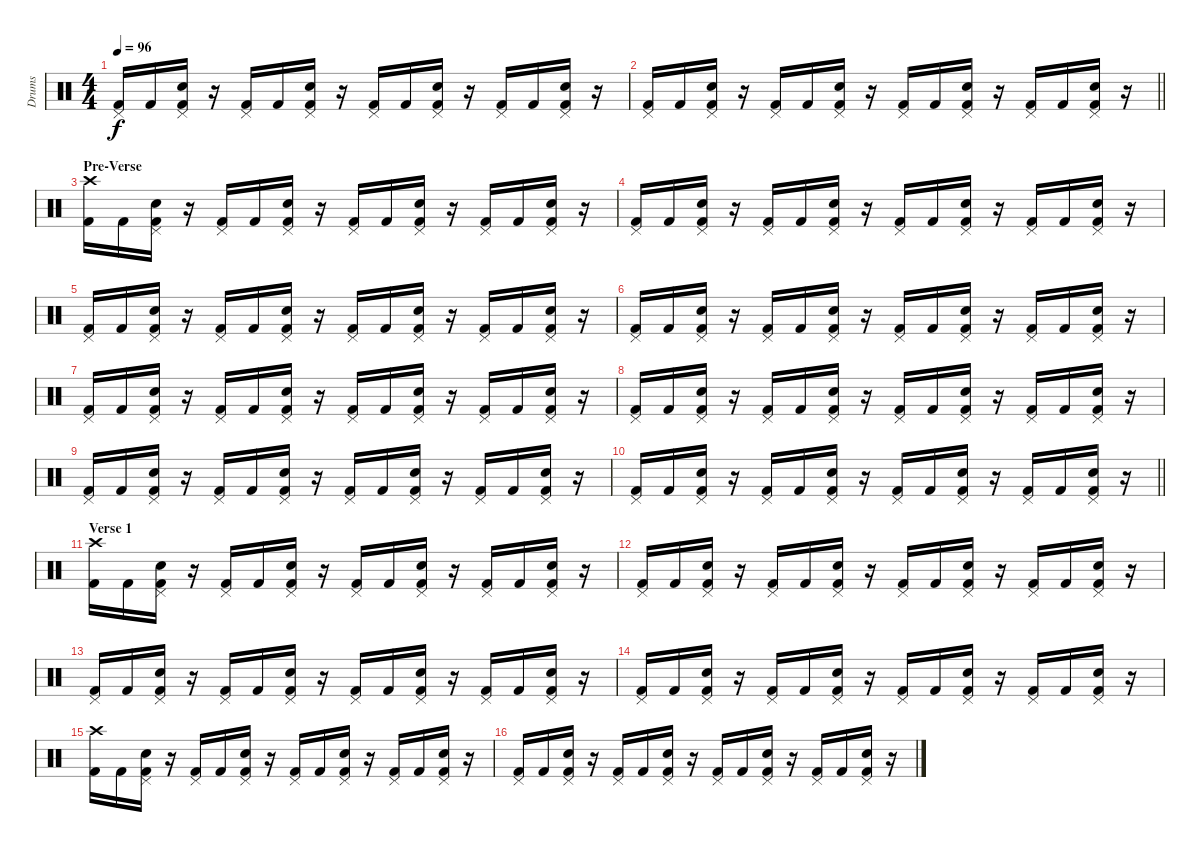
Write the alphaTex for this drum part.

\track ("Drums" "Drums") {instrument percussion}
\staff {score}
\articulation defaults
\ts (4 4)
\tempo 96
\clef neutral
\ks c
("Pedal Hi-Hat (hit)" "Kick (hit) 2").16{dy f} "Kick (hit) 2".16 ("Pedal Hi-Hat (hit)" "Snare (hit) 2" "Kick (hit) 2").16 r.16 ("Pedal Hi-Hat (hit)" "Kick (hit) 2").16 "Kick (hit) 2".16 ("Pedal Hi-Hat (hit)" "Snare (hit) 2" "Kick (hit) 2").16 r.16 ("Pedal Hi-Hat (hit)" "Kick (hit) 2").16 "Kick (hit) 2".16 ("Pedal Hi-Hat (hit)" "Snare (hit) 2" "Kick (hit) 2").16 r.16 ("Pedal Hi-Hat (hit)" "Kick (hit) 2").16 "Kick (hit) 2".16 ("Pedal Hi-Hat (hit)" "Snare (hit) 2" "Kick (hit) 2").16 r.16 |
\barLineRight lightlight
("Pedal Hi-Hat (hit)" "Kick (hit) 2").16 "Kick (hit) 2".16 ("Pedal Hi-Hat (hit)" "Snare (hit) 2" "Kick (hit) 2").16 r.16 ("Pedal Hi-Hat (hit)" "Kick (hit) 2").16 "Kick (hit) 2".16 ("Pedal Hi-Hat (hit)" "Snare (hit) 2" "Kick (hit) 2").16 r.16 ("Pedal Hi-Hat (hit)" "Kick (hit) 2").16 "Kick (hit) 2".16 ("Pedal Hi-Hat (hit)" "Snare (hit) 2" "Kick (hit) 2").16 r.16 ("Pedal Hi-Hat (hit)" "Kick (hit) 2").16 "Kick (hit) 2".16 ("Pedal Hi-Hat (hit)" "Snare (hit) 2" "Kick (hit) 2").16 r.16 |
\section ("" "Pre-Verse")
("Crash high (hit)" "Kick (hit) 2").16 "Kick (hit) 2".16 ("Pedal Hi-Hat (hit)" "Snare (hit) 2" "Kick (hit) 2").16 r.16 ("Pedal Hi-Hat (hit)" "Kick (hit) 2").16 "Kick (hit) 2".16 ("Pedal Hi-Hat (hit)" "Snare (hit) 2" "Kick (hit) 2").16 r.16 ("Pedal Hi-Hat (hit)" "Kick (hit) 2").16 "Kick (hit) 2".16 ("Pedal Hi-Hat (hit)" "Snare (hit) 2" "Kick (hit) 2").16 r.16 ("Pedal Hi-Hat (hit)" "Kick (hit) 2").16 "Kick (hit) 2".16 ("Pedal Hi-Hat (hit)" "Snare (hit) 2" "Kick (hit) 2").16 r.16 |
("Pedal Hi-Hat (hit)" "Kick (hit) 2").16 "Kick (hit) 2".16 ("Pedal Hi-Hat (hit)" "Snare (hit) 2" "Kick (hit) 2").16 r.16 ("Pedal Hi-Hat (hit)" "Kick (hit) 2").16 "Kick (hit) 2".16 ("Pedal Hi-Hat (hit)" "Snare (hit) 2" "Kick (hit) 2").16 r.16 ("Pedal Hi-Hat (hit)" "Kick (hit) 2").16 "Kick (hit) 2".16 ("Pedal Hi-Hat (hit)" "Snare (hit) 2" "Kick (hit) 2").16 r.16 ("Pedal Hi-Hat (hit)" "Kick (hit) 2").16 "Kick (hit) 2".16 ("Pedal Hi-Hat (hit)" "Snare (hit) 2" "Kick (hit) 2").16 r.16 |
("Pedal Hi-Hat (hit)" "Kick (hit) 2").16 "Kick (hit) 2".16 ("Pedal Hi-Hat (hit)" "Snare (hit) 2" "Kick (hit) 2").16 r.16 ("Pedal Hi-Hat (hit)" "Kick (hit) 2").16 "Kick (hit) 2".16 ("Pedal Hi-Hat (hit)" "Snare (hit) 2" "Kick (hit) 2").16 r.16 ("Pedal Hi-Hat (hit)" "Kick (hit) 2").16 "Kick (hit) 2".16 ("Pedal Hi-Hat (hit)" "Snare (hit) 2" "Kick (hit) 2").16 r.16 ("Pedal Hi-Hat (hit)" "Kick (hit) 2").16 "Kick (hit) 2".16 ("Pedal Hi-Hat (hit)" "Snare (hit) 2" "Kick (hit) 2").16 r.16 |
("Pedal Hi-Hat (hit)" "Kick (hit) 2").16 "Kick (hit) 2".16 ("Pedal Hi-Hat (hit)" "Snare (hit) 2" "Kick (hit) 2").16 r.16 ("Pedal Hi-Hat (hit)" "Kick (hit) 2").16 "Kick (hit) 2".16 ("Pedal Hi-Hat (hit)" "Snare (hit) 2" "Kick (hit) 2").16 r.16 ("Pedal Hi-Hat (hit)" "Kick (hit) 2").16 "Kick (hit) 2".16 ("Pedal Hi-Hat (hit)" "Snare (hit) 2" "Kick (hit) 2").16 r.16 ("Pedal Hi-Hat (hit)" "Kick (hit) 2").16 "Kick (hit) 2".16 ("Pedal Hi-Hat (hit)" "Snare (hit) 2" "Kick (hit) 2").16 r.16 |
("Pedal Hi-Hat (hit)" "Kick (hit) 2").16 "Kick (hit) 2".16 ("Pedal Hi-Hat (hit)" "Snare (hit) 2" "Kick (hit) 2").16 r.16 ("Pedal Hi-Hat (hit)" "Kick (hit) 2").16 "Kick (hit) 2".16 ("Pedal Hi-Hat (hit)" "Snare (hit) 2" "Kick (hit) 2").16 r.16 ("Pedal Hi-Hat (hit)" "Kick (hit) 2").16 "Kick (hit) 2".16 ("Pedal Hi-Hat (hit)" "Snare (hit) 2" "Kick (hit) 2").16 r.16 ("Pedal Hi-Hat (hit)" "Kick (hit) 2").16 "Kick (hit) 2".16 ("Pedal Hi-Hat (hit)" "Snare (hit) 2" "Kick (hit) 2").16 r.16 |
("Pedal Hi-Hat (hit)" "Kick (hit) 2").16 "Kick (hit) 2".16 ("Pedal Hi-Hat (hit)" "Snare (hit) 2" "Kick (hit) 2").16 r.16 ("Pedal Hi-Hat (hit)" "Kick (hit) 2").16 "Kick (hit) 2".16 ("Pedal Hi-Hat (hit)" "Snare (hit) 2" "Kick (hit) 2").16 r.16 ("Pedal Hi-Hat (hit)" "Kick (hit) 2").16 "Kick (hit) 2".16 ("Pedal Hi-Hat (hit)" "Snare (hit) 2" "Kick (hit) 2").16 r.16 ("Pedal Hi-Hat (hit)" "Kick (hit) 2").16 "Kick (hit) 2".16 ("Pedal Hi-Hat (hit)" "Snare (hit) 2" "Kick (hit) 2").16 r.16 |
("Pedal Hi-Hat (hit)" "Kick (hit) 2").16 "Kick (hit) 2".16 ("Pedal Hi-Hat (hit)" "Snare (hit) 2" "Kick (hit) 2").16 r.16 ("Pedal Hi-Hat (hit)" "Kick (hit) 2").16 "Kick (hit) 2".16 ("Pedal Hi-Hat (hit)" "Snare (hit) 2" "Kick (hit) 2").16 r.16 ("Pedal Hi-Hat (hit)" "Kick (hit) 2").16 "Kick (hit) 2".16 ("Pedal Hi-Hat (hit)" "Snare (hit) 2" "Kick (hit) 2").16 r.16 ("Pedal Hi-Hat (hit)" "Kick (hit) 2").16 "Kick (hit) 2".16 ("Pedal Hi-Hat (hit)" "Snare (hit) 2" "Kick (hit) 2").16 r.16 |
\barLineRight lightlight
("Pedal Hi-Hat (hit)" "Kick (hit) 2").16 "Kick (hit) 2".16 ("Pedal Hi-Hat (hit)" "Snare (hit) 2" "Kick (hit) 2").16 r.16 ("Pedal Hi-Hat (hit)" "Kick (hit) 2").16 "Kick (hit) 2".16 ("Pedal Hi-Hat (hit)" "Snare (hit) 2" "Kick (hit) 2").16 r.16 ("Pedal Hi-Hat (hit)" "Kick (hit) 2").16 "Kick (hit) 2".16 ("Pedal Hi-Hat (hit)" "Snare (hit) 2" "Kick (hit) 2").16 r.16 ("Pedal Hi-Hat (hit)" "Kick (hit) 2").16 "Kick (hit) 2".16 ("Pedal Hi-Hat (hit)" "Snare (hit) 2" "Kick (hit) 2").16 r.16 |
\section ("" "Verse 1")
("Crash high (hit)" "Kick (hit) 2").16 "Kick (hit) 2".16 ("Pedal Hi-Hat (hit)" "Snare (hit) 2" "Kick (hit) 2").16 r.16 ("Pedal Hi-Hat (hit)" "Kick (hit) 2").16 "Kick (hit) 2".16 ("Pedal Hi-Hat (hit)" "Snare (hit) 2" "Kick (hit) 2").16 r.16 ("Pedal Hi-Hat (hit)" "Kick (hit) 2").16 "Kick (hit) 2".16 ("Pedal Hi-Hat (hit)" "Snare (hit) 2" "Kick (hit) 2").16 r.16 ("Pedal Hi-Hat (hit)" "Kick (hit) 2").16 "Kick (hit) 2".16 ("Pedal Hi-Hat (hit)" "Snare (hit) 2" "Kick (hit) 2").16 r.16 |
("Pedal Hi-Hat (hit)" "Kick (hit) 2").16 "Kick (hit) 2".16 ("Pedal Hi-Hat (hit)" "Snare (hit) 2" "Kick (hit) 2").16 r.16 ("Pedal Hi-Hat (hit)" "Kick (hit) 2").16 "Kick (hit) 2".16 ("Pedal Hi-Hat (hit)" "Snare (hit) 2" "Kick (hit) 2").16 r.16 ("Pedal Hi-Hat (hit)" "Kick (hit) 2").16 "Kick (hit) 2".16 ("Pedal Hi-Hat (hit)" "Snare (hit) 2" "Kick (hit) 2").16 r.16 ("Pedal Hi-Hat (hit)" "Kick (hit) 2").16 "Kick (hit) 2".16 ("Pedal Hi-Hat (hit)" "Snare (hit) 2" "Kick (hit) 2").16 r.16 |
("Pedal Hi-Hat (hit)" "Kick (hit) 2").16 "Kick (hit) 2".16 ("Pedal Hi-Hat (hit)" "Snare (hit) 2" "Kick (hit) 2").16 r.16 ("Pedal Hi-Hat (hit)" "Kick (hit) 2").16 "Kick (hit) 2".16 ("Pedal Hi-Hat (hit)" "Snare (hit) 2" "Kick (hit) 2").16 r.16 ("Pedal Hi-Hat (hit)" "Kick (hit) 2").16 "Kick (hit) 2".16 ("Pedal Hi-Hat (hit)" "Snare (hit) 2" "Kick (hit) 2").16 r.16 ("Pedal Hi-Hat (hit)" "Kick (hit) 2").16 "Kick (hit) 2".16 ("Pedal Hi-Hat (hit)" "Snare (hit) 2" "Kick (hit) 2").16 r.16 |
("Pedal Hi-Hat (hit)" "Kick (hit) 2").16 "Kick (hit) 2".16 ("Pedal Hi-Hat (hit)" "Snare (hit) 2" "Kick (hit) 2").16 r.16 ("Pedal Hi-Hat (hit)" "Kick (hit) 2").16 "Kick (hit) 2".16 ("Pedal Hi-Hat (hit)" "Snare (hit) 2" "Kick (hit) 2").16 r.16 ("Pedal Hi-Hat (hit)" "Kick (hit) 2").16 "Kick (hit) 2".16 ("Pedal Hi-Hat (hit)" "Snare (hit) 2" "Kick (hit) 2").16 r.16 ("Pedal Hi-Hat (hit)" "Kick (hit) 2").16 "Kick (hit) 2".16 ("Pedal Hi-Hat (hit)" "Snare (hit) 2" "Kick (hit) 2").16 r.16 |
("Crash high (hit)" "Kick (hit) 2").16 "Kick (hit) 2".16 ("Pedal Hi-Hat (hit)" "Snare (hit) 2" "Kick (hit) 2").16 r.16 ("Pedal Hi-Hat (hit)" "Kick (hit) 2").16 "Kick (hit) 2".16 ("Pedal Hi-Hat (hit)" "Snare (hit) 2" "Kick (hit) 2").16 r.16 ("Pedal Hi-Hat (hit)" "Kick (hit) 2").16 "Kick (hit) 2".16 ("Pedal Hi-Hat (hit)" "Snare (hit) 2" "Kick (hit) 2").16 r.16 ("Pedal Hi-Hat (hit)" "Kick (hit) 2").16 "Kick (hit) 2".16 ("Pedal Hi-Hat (hit)" "Snare (hit) 2" "Kick (hit) 2").16 r.16 |
("Pedal Hi-Hat (hit)" "Kick (hit) 2").16 "Kick (hit) 2".16 ("Pedal Hi-Hat (hit)" "Snare (hit) 2" "Kick (hit) 2").16 r.16 ("Pedal Hi-Hat (hit)" "Kick (hit) 2").16 "Kick (hit) 2".16 ("Pedal Hi-Hat (hit)" "Snare (hit) 2" "Kick (hit) 2").16 r.16 ("Pedal Hi-Hat (hit)" "Kick (hit) 2").16 "Kick (hit) 2".16 ("Pedal Hi-Hat (hit)" "Snare (hit) 2" "Kick (hit) 2").16 r.16 ("Pedal Hi-Hat (hit)" "Kick (hit) 2").16 "Kick (hit) 2".16 ("Pedal Hi-Hat (hit)" "Snare (hit) 2" "Kick (hit) 2").16 r.16
